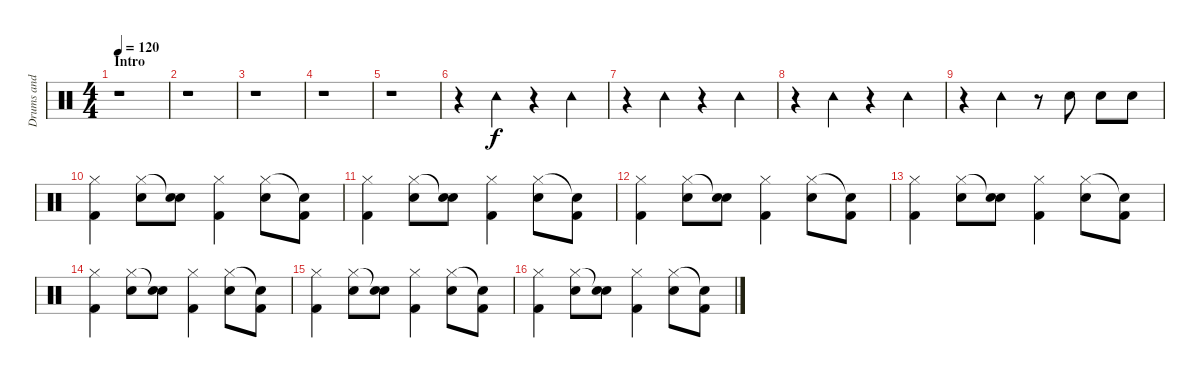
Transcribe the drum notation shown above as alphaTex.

\track ("Drums and Percussion" "Drums and ") {instrument percussion}
\staff {score}
\articulation defaults
\ts (4 4)
\section ("" "Intro")
\tempo 120
\clef neutral
\ks c
r.1{dy f} |
r.1 |
r.1 |
r.1 |
r.1 |
r.4 "Tambourine (hit)".4 r.4 "Tambourine (hit)".4 |
r.4 "Tambourine (hit)".4 r.4 "Tambourine (hit)".4 |
r.4 "Tambourine (hit)".4 r.4 "Tambourine (hit)".4 |
r.4 "Tambourine (hit)".4 r.8 "Snare (hit) 2".8 "Snare (hit) 2".8 "Snare (hit) 2".8 |
("Hi-Hat (closed)" "Kick (hit) 2").4 ("Hi-Hat (closed)" "Snare (hit) 2").8 ("Snare (hit)"{t} "Snare (hit) 2").8 ("Hi-Hat (closed)" "Kick (hit) 2").4 ("Hi-Hat (closed)" "Snare (hit) 2").8 ("Snare (hit)"{t} "Kick (hit) 2").8 |
("Hi-Hat (closed)" "Kick (hit) 2").4 ("Hi-Hat (closed)" "Snare (hit) 2").8 ("Snare (hit)"{t} "Snare (hit) 2").8 ("Hi-Hat (closed)" "Kick (hit) 2").4 ("Hi-Hat (closed)" "Snare (hit) 2").8 ("Snare (hit)"{t} "Kick (hit) 2").8 |
("Hi-Hat (closed)" "Kick (hit) 2").4 ("Hi-Hat (closed)" "Snare (hit) 2").8 ("Snare (hit)"{t} "Snare (hit) 2").8 ("Hi-Hat (closed)" "Kick (hit) 2").4 ("Hi-Hat (closed)" "Snare (hit) 2").8 ("Snare (hit)"{t} "Kick (hit) 2").8 |
("Hi-Hat (closed)" "Kick (hit) 2").4 ("Hi-Hat (closed)" "Snare (hit) 2").8 ("Snare (hit)"{t} "Snare (hit) 2").8 ("Hi-Hat (closed)" "Kick (hit) 2").4 ("Hi-Hat (closed)" "Snare (hit) 2").8 ("Snare (hit)"{t} "Kick (hit) 2").8 |
("Hi-Hat (closed)" "Kick (hit) 2").4 ("Hi-Hat (closed)" "Snare (hit) 2").8 ("Snare (hit)"{t} "Snare (hit) 2").8 ("Hi-Hat (closed)" "Kick (hit) 2").4 ("Hi-Hat (closed)" "Snare (hit) 2").8 ("Snare (hit)"{t} "Kick (hit) 2").8 |
("Hi-Hat (closed)" "Kick (hit) 2").4 ("Hi-Hat (closed)" "Snare (hit) 2").8 ("Snare (hit)"{t} "Snare (hit) 2").8 ("Hi-Hat (closed)" "Kick (hit) 2").4 ("Hi-Hat (closed)" "Snare (hit) 2").8 ("Snare (hit)"{t} "Kick (hit) 2").8 |
("Hi-Hat (closed)" "Kick (hit) 2").4 ("Hi-Hat (closed)" "Snare (hit) 2").8 ("Snare (hit)"{t} "Snare (hit) 2").8 ("Hi-Hat (closed)" "Kick (hit) 2").4 ("Hi-Hat (closed)" "Snare (hit) 2").8 ("Snare (hit)"{t} "Kick (hit) 2").8
